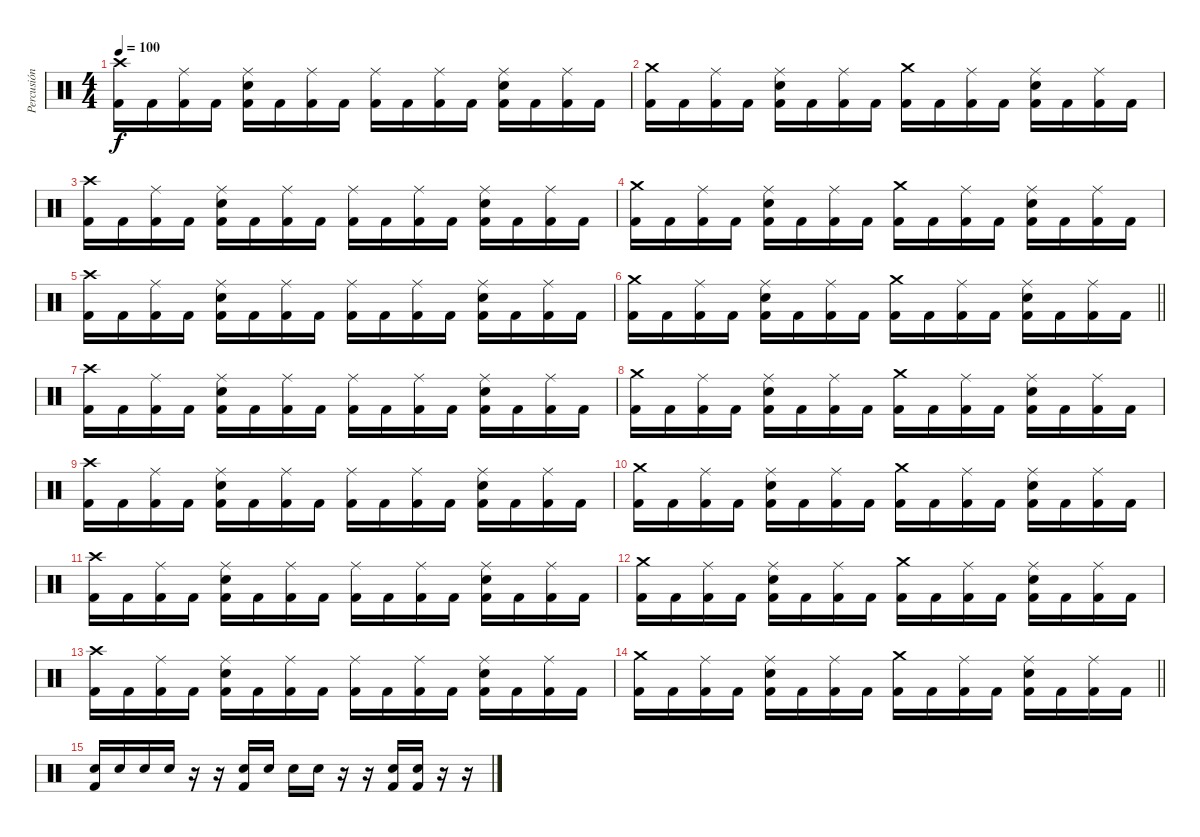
\track ("Percusión" "Percusión") {instrument percussion}
\staff {score}
\articulation defaults
\ts (4 4)
\tempo 100
\clef neutral
\ks c
("Crash high (hit)" "Kick (hit) 2").16{dy f} "Kick (hit) 2".16 ("Ride (middle)" "Kick (hit) 2").16 "Kick (hit) 2".16 ("Ride (middle)" "Snare (hit) 2" "Kick (hit) 2").16 "Kick (hit) 2".16 ("Ride (middle)" "Kick (hit) 2").16 "Kick (hit) 2".16 ("Ride (middle)" "Kick (hit) 2").16 "Kick (hit) 2".16 ("Ride (middle)" "Kick (hit) 2").16 "Kick (hit) 2".16 ("Ride (middle)" "Snare (hit) 2" "Kick (hit) 2").16 "Kick (hit) 2".16 ("Ride (middle)" "Kick (hit) 2").16 "Kick (hit) 2".16 |
("Crash medium (hit)" "Kick (hit) 2").16 "Kick (hit) 2".16 ("Ride (middle)" "Kick (hit) 2").16 "Kick (hit) 2".16 ("Ride (middle)" "Snare (hit) 2" "Kick (hit) 2").16 "Kick (hit) 2".16 ("Ride (middle)" "Kick (hit) 2").16 "Kick (hit) 2".16 ("Crash medium (hit)" "Kick (hit) 2").16 "Kick (hit) 2".16 ("Ride (middle)" "Kick (hit) 2").16 "Kick (hit) 2".16 ("Ride (middle)" "Snare (hit) 2" "Kick (hit) 2").16 "Kick (hit) 2".16 ("Ride (middle)" "Kick (hit) 2").16 "Kick (hit) 2".16 |
("Crash high (hit)" "Kick (hit) 2").16 "Kick (hit) 2".16 ("Ride (middle)" "Kick (hit) 2").16 "Kick (hit) 2".16 ("Ride (middle)" "Snare (hit) 2" "Kick (hit) 2").16 "Kick (hit) 2".16 ("Ride (middle)" "Kick (hit) 2").16 "Kick (hit) 2".16 ("Ride (middle)" "Kick (hit) 2").16 "Kick (hit) 2".16 ("Ride (middle)" "Kick (hit) 2").16 "Kick (hit) 2".16 ("Ride (middle)" "Snare (hit) 2" "Kick (hit) 2").16 "Kick (hit) 2".16 ("Ride (middle)" "Kick (hit) 2").16 "Kick (hit) 2".16 |
("Crash medium (hit)" "Kick (hit) 2").16 "Kick (hit) 2".16 ("Ride (middle)" "Kick (hit) 2").16 "Kick (hit) 2".16 ("Ride (middle)" "Snare (hit) 2" "Kick (hit) 2").16 "Kick (hit) 2".16 ("Ride (middle)" "Kick (hit) 2").16 "Kick (hit) 2".16 ("Crash medium (hit)" "Kick (hit) 2").16 "Kick (hit) 2".16 ("Ride (middle)" "Kick (hit) 2").16 "Kick (hit) 2".16 ("Ride (middle)" "Snare (hit) 2" "Kick (hit) 2").16 "Kick (hit) 2".16 ("Ride (middle)" "Kick (hit) 2").16 "Kick (hit) 2".16 |
("Crash high (hit)" "Kick (hit) 2").16 "Kick (hit) 2".16 ("Ride (middle)" "Kick (hit) 2").16 "Kick (hit) 2".16 ("Ride (middle)" "Snare (hit) 2" "Kick (hit) 2").16 "Kick (hit) 2".16 ("Ride (middle)" "Kick (hit) 2").16 "Kick (hit) 2".16 ("Ride (middle)" "Kick (hit) 2").16 "Kick (hit) 2".16 ("Ride (middle)" "Kick (hit) 2").16 "Kick (hit) 2".16 ("Ride (middle)" "Snare (hit) 2" "Kick (hit) 2").16 "Kick (hit) 2".16 ("Ride (middle)" "Kick (hit) 2").16 "Kick (hit) 2".16 |
\barLineRight lightlight
("Crash medium (hit)" "Kick (hit) 2").16 "Kick (hit) 2".16 ("Ride (middle)" "Kick (hit) 2").16 "Kick (hit) 2".16 ("Ride (middle)" "Snare (hit) 2" "Kick (hit) 2").16 "Kick (hit) 2".16 ("Ride (middle)" "Kick (hit) 2").16 "Kick (hit) 2".16 ("Crash medium (hit)" "Kick (hit) 2").16 "Kick (hit) 2".16 ("Ride (middle)" "Kick (hit) 2").16 "Kick (hit) 2".16 ("Ride (middle)" "Snare (hit) 2" "Kick (hit) 2").16 "Kick (hit) 2".16 ("Ride (middle)" "Kick (hit) 2").16 "Kick (hit) 2".16 |
("Crash high (hit)" "Kick (hit) 2").16 "Kick (hit) 2".16 ("Ride (middle)" "Kick (hit) 2").16 "Kick (hit) 2".16 ("Ride (middle)" "Snare (hit) 2" "Kick (hit) 2").16 "Kick (hit) 2".16 ("Ride (middle)" "Kick (hit) 2").16 "Kick (hit) 2".16 ("Ride (middle)" "Kick (hit) 2").16 "Kick (hit) 2".16 ("Ride (middle)" "Kick (hit) 2").16 "Kick (hit) 2".16 ("Ride (middle)" "Snare (hit) 2" "Kick (hit) 2").16 "Kick (hit) 2".16 ("Ride (middle)" "Kick (hit) 2").16 "Kick (hit) 2".16 |
("Crash medium (hit)" "Kick (hit) 2").16 "Kick (hit) 2".16 ("Ride (middle)" "Kick (hit) 2").16 "Kick (hit) 2".16 ("Ride (middle)" "Snare (hit) 2" "Kick (hit) 2").16 "Kick (hit) 2".16 ("Ride (middle)" "Kick (hit) 2").16 "Kick (hit) 2".16 ("Crash medium (hit)" "Kick (hit) 2").16 "Kick (hit) 2".16 ("Ride (middle)" "Kick (hit) 2").16 "Kick (hit) 2".16 ("Ride (middle)" "Snare (hit) 2" "Kick (hit) 2").16 "Kick (hit) 2".16 ("Ride (middle)" "Kick (hit) 2").16 "Kick (hit) 2".16 |
("Crash high (hit)" "Kick (hit) 2").16 "Kick (hit) 2".16 ("Ride (middle)" "Kick (hit) 2").16 "Kick (hit) 2".16 ("Ride (middle)" "Snare (hit) 2" "Kick (hit) 2").16 "Kick (hit) 2".16 ("Ride (middle)" "Kick (hit) 2").16 "Kick (hit) 2".16 ("Ride (middle)" "Kick (hit) 2").16 "Kick (hit) 2".16 ("Ride (middle)" "Kick (hit) 2").16 "Kick (hit) 2".16 ("Ride (middle)" "Snare (hit) 2" "Kick (hit) 2").16 "Kick (hit) 2".16 ("Ride (middle)" "Kick (hit) 2").16 "Kick (hit) 2".16 |
("Crash medium (hit)" "Kick (hit) 2").16 "Kick (hit) 2".16 ("Ride (middle)" "Kick (hit) 2").16 "Kick (hit) 2".16 ("Ride (middle)" "Snare (hit) 2" "Kick (hit) 2").16 "Kick (hit) 2".16 ("Ride (middle)" "Kick (hit) 2").16 "Kick (hit) 2".16 ("Crash medium (hit)" "Kick (hit) 2").16 "Kick (hit) 2".16 ("Ride (middle)" "Kick (hit) 2").16 "Kick (hit) 2".16 ("Ride (middle)" "Snare (hit) 2" "Kick (hit) 2").16 "Kick (hit) 2".16 ("Ride (middle)" "Kick (hit) 2").16 "Kick (hit) 2".16 |
("Crash high (hit)" "Kick (hit) 2").16 "Kick (hit) 2".16 ("Ride (middle)" "Kick (hit) 2").16 "Kick (hit) 2".16 ("Ride (middle)" "Snare (hit) 2" "Kick (hit) 2").16 "Kick (hit) 2".16 ("Ride (middle)" "Kick (hit) 2").16 "Kick (hit) 2".16 ("Ride (middle)" "Kick (hit) 2").16 "Kick (hit) 2".16 ("Ride (middle)" "Kick (hit) 2").16 "Kick (hit) 2".16 ("Ride (middle)" "Snare (hit) 2" "Kick (hit) 2").16 "Kick (hit) 2".16 ("Ride (middle)" "Kick (hit) 2").16 "Kick (hit) 2".16 |
("Crash medium (hit)" "Kick (hit) 2").16 "Kick (hit) 2".16 ("Ride (middle)" "Kick (hit) 2").16 "Kick (hit) 2".16 ("Ride (middle)" "Snare (hit) 2" "Kick (hit) 2").16 "Kick (hit) 2".16 ("Ride (middle)" "Kick (hit) 2").16 "Kick (hit) 2".16 ("Crash medium (hit)" "Kick (hit) 2").16 "Kick (hit) 2".16 ("Ride (middle)" "Kick (hit) 2").16 "Kick (hit) 2".16 ("Ride (middle)" "Snare (hit) 2" "Kick (hit) 2").16 "Kick (hit) 2".16 ("Ride (middle)" "Kick (hit) 2").16 "Kick (hit) 2".16 |
("Crash high (hit)" "Kick (hit) 2").16 "Kick (hit) 2".16 ("Ride (middle)" "Kick (hit) 2").16 "Kick (hit) 2".16 ("Ride (middle)" "Snare (hit) 2" "Kick (hit) 2").16 "Kick (hit) 2".16 ("Ride (middle)" "Kick (hit) 2").16 "Kick (hit) 2".16 ("Ride (middle)" "Kick (hit) 2").16 "Kick (hit) 2".16 ("Ride (middle)" "Kick (hit) 2").16 "Kick (hit) 2".16 ("Ride (middle)" "Snare (hit) 2" "Kick (hit) 2").16 "Kick (hit) 2".16 ("Ride (middle)" "Kick (hit) 2").16 "Kick (hit) 2".16 |
\barLineRight lightlight
("Crash medium (hit)" "Kick (hit) 2").16 "Kick (hit) 2".16 ("Ride (middle)" "Kick (hit) 2").16 "Kick (hit) 2".16 ("Ride (middle)" "Snare (hit) 2" "Kick (hit) 2").16 "Kick (hit) 2".16 ("Ride (middle)" "Kick (hit) 2").16 "Kick (hit) 2".16 ("Crash medium (hit)" "Kick (hit) 2").16 "Kick (hit) 2".16 ("Ride (middle)" "Kick (hit) 2").16 "Kick (hit) 2".16 ("Ride (middle)" "Snare (hit) 2" "Kick (hit) 2").16 "Kick (hit) 2".16 ("Ride (middle)" "Kick (hit) 2").16 "Kick (hit) 2".16 |
("Snare (hit) 2" "Kick (hit) 2").16 "Snare (hit) 2".16 "Snare (hit) 2".16 "Snare (hit) 2".16 r.16 r.16 ("Snare (hit) 2" "Kick (hit) 2").16 "Snare (hit) 2".16 "Snare (hit) 2".16 "Snare (hit) 2".16 r.16 r.16 ("Snare (hit) 2" "Kick (hit) 2").16 ("Snare (hit) 2" "Kick (hit) 2").16 r.16 r.16
